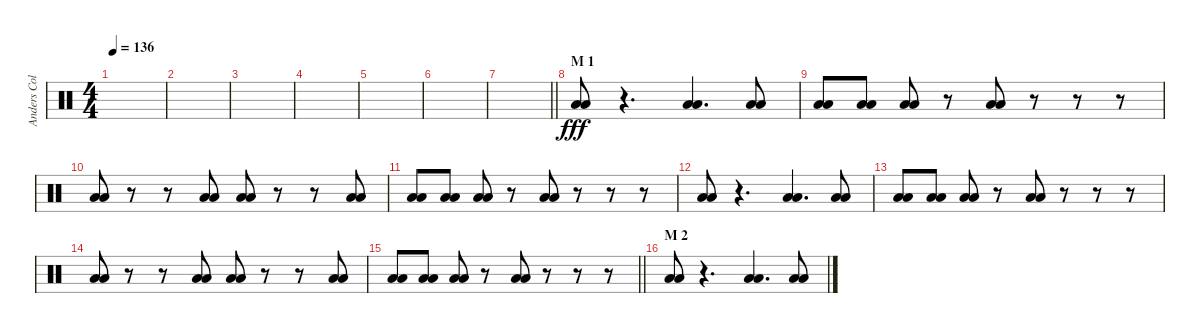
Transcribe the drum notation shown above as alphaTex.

\track ("Anders Colsefini" "Anders Col") {instrument percussion}
\staff {score}
\articulation defaults
\ts (4 4)
\tempo 136
\clef neutral
\ks c
|
|
|
|
|
|
\barLineRight lightlight
|
\section ("" "M 1")
("Low Floor Tom (hit)" "Low Floor Tom (hit)").8{dy fff} r.4{d} ("Low Floor Tom (hit)" "Low Floor Tom (hit)").4{d} ("Low Floor Tom (hit)" "Low Floor Tom (hit)").8 |
("Low Floor Tom (hit)" "Low Floor Tom (hit)").8 ("Low Floor Tom (hit)" "Low Floor Tom (hit)").8 ("Low Floor Tom (hit)" "Low Floor Tom (hit)").8 r.8 ("Low Floor Tom (hit)" "Low Floor Tom (hit)").8 r.8 r.8 r.8 |
("Low Floor Tom (hit)" "Low Floor Tom (hit)").8 r.8 r.8 ("Low Floor Tom (hit)" "Low Floor Tom (hit)").8 ("Low Floor Tom (hit)" "Low Floor Tom (hit)").8 r.8 r.8 ("Low Floor Tom (hit)" "Low Floor Tom (hit)").8 |
("Low Floor Tom (hit)" "Low Floor Tom (hit)").8 ("Low Floor Tom (hit)" "Low Floor Tom (hit)").8 ("Low Floor Tom (hit)" "Low Floor Tom (hit)").8 r.8 ("Low Floor Tom (hit)" "Low Floor Tom (hit)").8 r.8 r.8 r.8 |
("Low Floor Tom (hit)" "Low Floor Tom (hit)").8 r.4{d} ("Low Floor Tom (hit)" "Low Floor Tom (hit)").4{d} ("Low Floor Tom (hit)" "Low Floor Tom (hit)").8 |
("Low Floor Tom (hit)" "Low Floor Tom (hit)").8 ("Low Floor Tom (hit)" "Low Floor Tom (hit)").8 ("Low Floor Tom (hit)" "Low Floor Tom (hit)").8 r.8 ("Low Floor Tom (hit)" "Low Floor Tom (hit)").8 r.8 r.8 r.8 |
("Low Floor Tom (hit)" "Low Floor Tom (hit)").8 r.8 r.8 ("Low Floor Tom (hit)" "Low Floor Tom (hit)").8 ("Low Floor Tom (hit)" "Low Floor Tom (hit)").8 r.8 r.8 ("Low Floor Tom (hit)" "Low Floor Tom (hit)").8 |
\barLineRight lightlight
("Low Floor Tom (hit)" "Low Floor Tom (hit)").8 ("Low Floor Tom (hit)" "Low Floor Tom (hit)").8 ("Low Floor Tom (hit)" "Low Floor Tom (hit)").8 r.8 ("Low Floor Tom (hit)" "Low Floor Tom (hit)").8 r.8 r.8 r.8 |
\section ("" "M 2")
("Low Floor Tom (hit)" "Low Floor Tom (hit)").8 r.4{d} ("Low Floor Tom (hit)" "Low Floor Tom (hit)").4{d} ("Low Floor Tom (hit)" "Low Floor Tom (hit)").8
